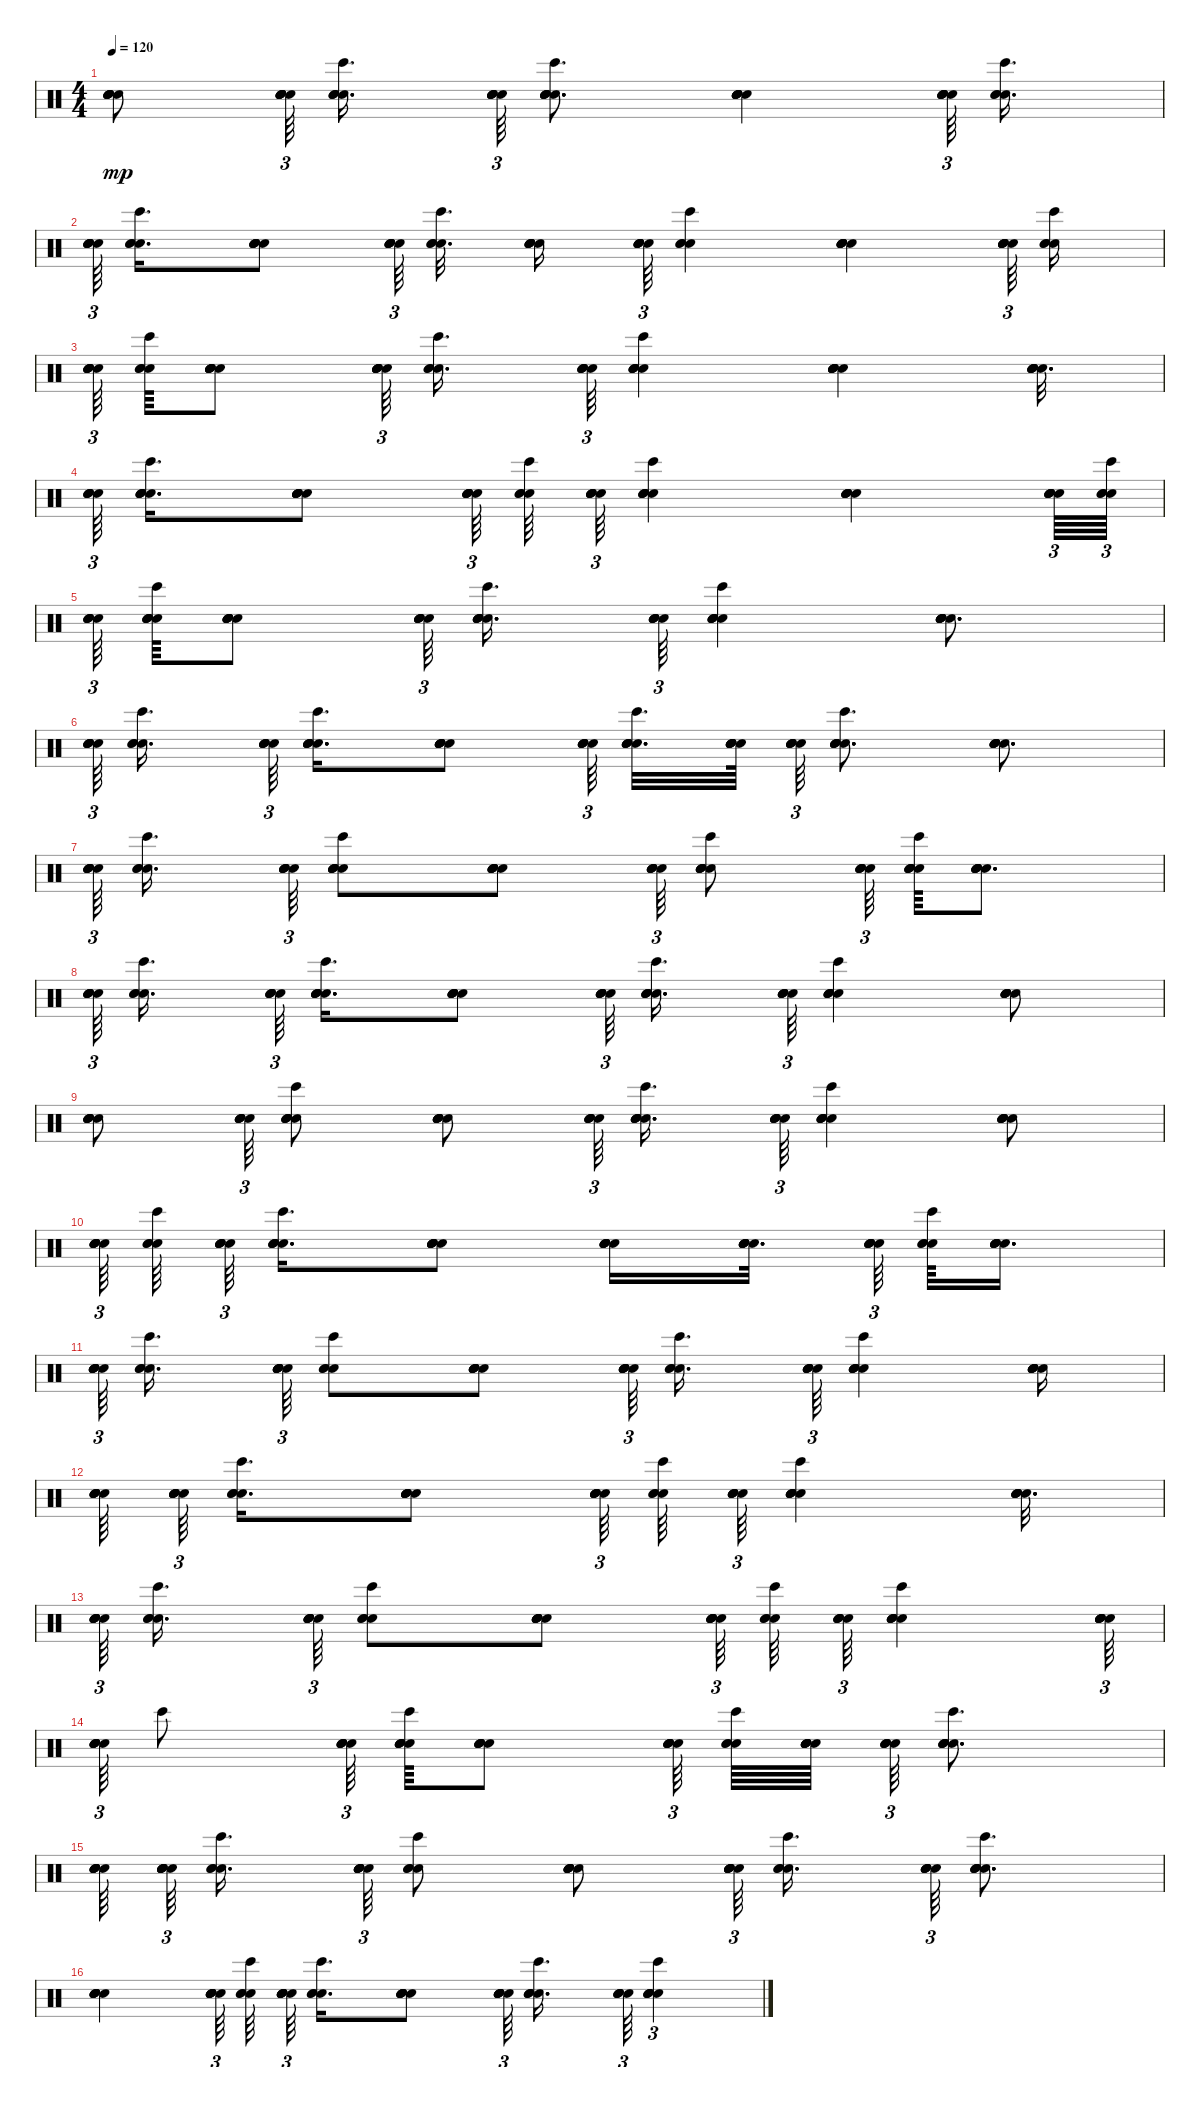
\track "" {instrument percussion}
\staff {score}
\articulation defaults
\ts (4 4)
\tempo 120
\clef neutral
\ks c
("Snare (hit)" "Snare (hit)" "Snare (hit)" "Snare (hit)" "Snare (hit)" "Snare (hit)").8{dy mp} ("Snare (hit)" "Snare (hit)" "Snare (hit)" "Snare (hit)" "Snare (hit)" "Snare (hit)").64{tu (3 2)} ("Snare (hit)" "Snare (hit)" "Snare (hit)" "Snare (hit)" "Bongo High (hit)").16{d} ("Snare (hit)" "Snare (hit)" "Snare (hit)" "Snare (hit)" "Snare (hit)").64{tu (3 2)} ("Snare (hit)" "Snare (hit)" "Snare (hit)" "Bongo High (hit)" "Snare (hit)" "Snare (hit)").8{d} ("Snare (hit)" "Snare (hit)" "Snare (hit)" "Snare (hit)" "Snare (hit)" "Snare (hit)").4 ("Snare (hit)" "Snare (hit)" "Snare (hit)" "Snare (hit)" "Snare (hit)" "Snare (hit)").64{tu (3 2)} ("Snare (hit)" "Snare (hit)" "Snare (hit)" "Bongo High (hit)").16{d} |
("Snare (hit)" "Snare (hit)" "Snare (hit)" "Snare (hit)" "Snare (hit)" "Snare (hit)").64{tu (3 2)} ("Snare (hit)" "Bongo High (hit)" "Snare (hit)" "Snare (hit)").16{d} ("Snare (hit)" "Snare (hit)" "Snare (hit)" "Snare (hit)" "Snare (hit)" "Snare (hit)").8 ("Snare (hit)" "Snare (hit)" "Snare (hit)" "Snare (hit)" "Snare (hit)" "Snare (hit)").64{tu (3 2)} ("Snare (hit)" "Snare (hit)" "Snare (hit)" "Bongo High (hit)").32{d} ("Snare (hit)" "Snare (hit)" "Snare (hit)" "Snare (hit)" "Snare (hit)" "Snare (hit)").16 ("Snare (hit)" "Snare (hit)" "Snare (hit)" "Snare (hit)" "Snare (hit)" "Snare (hit)").64{tu (3 2)} ("Snare (hit)" "Snare (hit)" "Snare (hit)" "Bongo High (hit)").4 ("Snare (hit)" "Snare (hit)" "Snare (hit)" "Snare (hit)" "Snare (hit)" "Snare (hit)").4 ("Snare (hit)" "Snare (hit)" "Snare (hit)" "Snare (hit)" "Snare (hit)" "Snare (hit)").64{tu (3 2)} ("Snare (hit)" "Bongo High (hit)" "Snare (hit)" "Snare (hit)").16 |
("Snare (hit)" "Snare (hit)" "Snare (hit)" "Snare (hit)" "Snare (hit)" "Snare (hit)").64{tu (3 2)} ("Snare (hit)" "Snare (hit)" "Bongo High (hit)" "Snare (hit)").64 ("Snare (hit)" "Snare (hit)" "Snare (hit)" "Snare (hit)" "Snare (hit)" "Snare (hit)").8 ("Snare (hit)" "Snare (hit)" "Snare (hit)" "Snare (hit)" "Snare (hit)" "Snare (hit)").64{tu (3 2)} ("Snare (hit)" "Snare (hit)" "Snare (hit)" "Bongo High (hit)").16{d} ("Snare (hit)" "Snare (hit)" "Snare (hit)" "Snare (hit)" "Snare (hit)").64{tu (3 2)} ("Snare (hit)" "Snare (hit)" "Snare (hit)" "Snare (hit)" "Snare (hit)" "Bongo High (hit)").4 ("Snare (hit)" "Snare (hit)" "Snare (hit)" "Snare (hit)" "Snare (hit)" "Snare (hit)").4 ("Snare (hit)" "Snare (hit)" "Snare (hit)" "Snare (hit)" "Snare (hit)" "Snare (hit)").32{d} |
("Snare (hit)" "Snare (hit)" "Snare (hit)" "Snare (hit)" "Snare (hit)").64{tu (3 2)} ("Snare (hit)" "Snare (hit)" "Snare (hit)" "Snare (hit)" "Bongo High (hit)" "Snare (hit)").16{d} ("Snare (hit)" "Snare (hit)" "Snare (hit)" "Snare (hit)" "Snare (hit)" "Snare (hit)").8 ("Snare (hit)" "Snare (hit)" "Snare (hit)" "Snare (hit)" "Snare (hit)" "Snare (hit)").64{tu (3 2)} ("Snare (hit)" "Snare (hit)" "Bongo High (hit)" "Snare (hit)").64 ("Snare (hit)" "Snare (hit)" "Snare (hit)" "Snare (hit)" "Snare (hit)").64{tu (3 2)} ("Snare (hit)" "Snare (hit)" "Snare (hit)" "Snare (hit)" "Bongo High (hit)" "Snare (hit)").4 ("Snare (hit)" "Snare (hit)" "Snare (hit)" "Snare (hit)" "Snare (hit)" "Snare (hit)").4 ("Snare (hit)" "Snare (hit)" "Snare (hit)" "Snare (hit)" "Snare (hit)" "Snare (hit)").64{tu (3 2)} ("Snare (hit)" "Snare (hit)" "Bongo High (hit)" "Snare (hit)").64{tu (3 2)} |
("Snare (hit)" "Snare (hit)" "Snare (hit)" "Snare (hit)" "Snare (hit)").64{tu (3 2)} ("Snare (hit)" "Snare (hit)" "Snare (hit)" "Snare (hit)" "Bongo High (hit)" "Snare (hit)").64 ("Snare (hit)" "Snare (hit)" "Snare (hit)" "Snare (hit)" "Snare (hit)" "Snare (hit)").8 ("Snare (hit)" "Snare (hit)" "Snare (hit)" "Snare (hit)" "Snare (hit)").64{tu (3 2)} ("Snare (hit)" "Snare (hit)" "Snare (hit)" "Snare (hit)" "Snare (hit)" "Bongo High (hit)").16{d} ("Snare (hit)" "Snare (hit)" "Snare (hit)" "Snare (hit)" "Snare (hit)").64{tu (3 2)} ("Snare (hit)" "Snare (hit)" "Snare (hit)" "Snare (hit)" "Snare (hit)" "Bongo High (hit)").4 ("Snare (hit)" "Snare (hit)" "Snare (hit)" "Snare (hit)" "Snare (hit)" "Snare (hit)").8{d} |
("Snare (hit)" "Snare (hit)" "Snare (hit)" "Snare (hit)" "Snare (hit)" "Snare (hit)").64{tu (3 2)} ("Snare (hit)" "Bongo High (hit)" "Snare (hit)" "Snare (hit)").16{d} ("Snare (hit)" "Snare (hit)" "Snare (hit)" "Snare (hit)" "Snare (hit)").64{tu (3 2)} ("Snare (hit)" "Snare (hit)" "Snare (hit)" "Snare (hit)" "Snare (hit)" "Bongo High (hit)").16{d} ("Snare (hit)" "Snare (hit)" "Snare (hit)" "Snare (hit)" "Snare (hit)" "Snare (hit)").8 ("Snare (hit)" "Snare (hit)" "Snare (hit)" "Snare (hit)" "Snare (hit)").64{tu (3 2)} ("Snare (hit)" "Snare (hit)" "Snare (hit)" "Snare (hit)" "Snare (hit)" "Bongo High (hit)").32{d} ("Snare (hit)" "Snare (hit)" "Snare (hit)" "Snare (hit)" "Snare (hit)" "Snare (hit)").64 ("Snare (hit)" "Snare (hit)" "Snare (hit)" "Snare (hit)" "Snare (hit)").64{tu (3 2)} ("Snare (hit)" "Snare (hit)" "Snare (hit)" "Snare (hit)" "Snare (hit)" "Bongo High (hit)").8{d} ("Snare (hit)" "Snare (hit)" "Snare (hit)" "Snare (hit)" "Snare (hit)" "Snare (hit)").8{d} |
("Snare (hit)" "Snare (hit)" "Snare (hit)" "Snare (hit)" "Snare (hit)" "Snare (hit)").64{tu (3 2)} ("Snare (hit)" "Snare (hit)" "Snare (hit)" "Bongo High (hit)").16{d} ("Snare (hit)" "Snare (hit)" "Snare (hit)" "Snare (hit)" "Snare (hit)").64{tu (3 2)} ("Snare (hit)" "Snare (hit)" "Snare (hit)" "Snare (hit)" "Snare (hit)" "Bongo High (hit)").8 ("Snare (hit)" "Snare (hit)" "Snare (hit)" "Snare (hit)" "Snare (hit)" "Snare (hit)").8 ("Snare (hit)" "Snare (hit)" "Snare (hit)" "Snare (hit)" "Snare (hit)").64{tu (3 2)} ("Snare (hit)" "Snare (hit)" "Snare (hit)" "Snare (hit)" "Bongo High (hit)" "Snare (hit)").8 ("Snare (hit)" "Snare (hit)" "Snare (hit)" "Snare (hit)" "Snare (hit)").64{tu (3 2)} ("Snare (hit)" "Snare (hit)" "Snare (hit)" "Snare (hit)" "Bongo High (hit)" "Snare (hit)").64 ("Snare (hit)" "Snare (hit)" "Snare (hit)" "Snare (hit)" "Snare (hit)" "Snare (hit)").8{d} |
("Snare (hit)" "Snare (hit)" "Snare (hit)" "Snare (hit)" "Snare (hit)" "Snare (hit)").64{tu (3 2)} ("Snare (hit)" "Snare (hit)" "Snare (hit)" "Bongo High (hit)").16{d} ("Snare (hit)" "Snare (hit)" "Snare (hit)" "Snare (hit)" "Snare (hit)").64{tu (3 2)} ("Snare (hit)" "Snare (hit)" "Snare (hit)" "Bongo High (hit)" "Snare (hit)" "Snare (hit)").16{d} ("Snare (hit)" "Snare (hit)" "Snare (hit)" "Snare (hit)" "Snare (hit)" "Snare (hit)").8 ("Snare (hit)" "Snare (hit)" "Snare (hit)" "Snare (hit)" "Snare (hit)").64{tu (3 2)} ("Snare (hit)" "Snare (hit)" "Snare (hit)" "Snare (hit)" "Snare (hit)" "Bongo High (hit)").16{d} ("Snare (hit)" "Snare (hit)" "Snare (hit)" "Snare (hit)" "Snare (hit)").64{tu (3 2)} ("Snare (hit)" "Snare (hit)" "Snare (hit)" "Snare (hit)" "Snare (hit)" "Bongo High (hit)").4 ("Snare (hit)" "Snare (hit)" "Snare (hit)" "Snare (hit)" "Snare (hit)" "Snare (hit)").8 |
("Snare (hit)" "Snare (hit)" "Snare (hit)" "Snare (hit)" "Snare (hit)" "Snare (hit)").8 ("Snare (hit)" "Snare (hit)" "Snare (hit)" "Snare (hit)" "Snare (hit)").64{tu (3 2)} ("Snare (hit)" "Snare (hit)" "Snare (hit)" "Snare (hit)" "Snare (hit)" "Bongo High (hit)").8 ("Snare (hit)" "Snare (hit)" "Snare (hit)" "Snare (hit)" "Snare (hit)" "Snare (hit)").8 ("Snare (hit)" "Snare (hit)" "Snare (hit)" "Snare (hit)" "Snare (hit)").64{tu (3 2)} ("Snare (hit)" "Snare (hit)" "Snare (hit)" "Bongo High (hit)" "Snare (hit)" "Snare (hit)").16{d} ("Snare (hit)" "Snare (hit)" "Snare (hit)" "Snare (hit)" "Snare (hit)").64{tu (3 2)} ("Snare (hit)" "Snare (hit)" "Snare (hit)" "Bongo High (hit)" "Snare (hit)" "Snare (hit)").4 ("Snare (hit)" "Snare (hit)" "Snare (hit)" "Snare (hit)" "Snare (hit)" "Snare (hit)").8 |
("Snare (hit)" "Snare (hit)" "Snare (hit)" "Snare (hit)" "Snare (hit)" "Snare (hit)").64{tu (3 2)} ("Snare (hit)" "Snare (hit)" "Bongo High (hit)" "Snare (hit)").64 ("Snare (hit)" "Snare (hit)" "Snare (hit)" "Snare (hit)" "Snare (hit)").64{tu (3 2)} ("Snare (hit)" "Snare (hit)" "Snare (hit)" "Bongo High (hit)" "Snare (hit)" "Snare (hit)").16{d} ("Snare (hit)" "Snare (hit)" "Snare (hit)" "Snare (hit)" "Snare (hit)" "Snare (hit)").8 ("Snare (hit)" "Snare (hit)" "Snare (hit)" "Snare (hit)" "Snare (hit)" "Snare (hit)").16 ("Snare (hit)" "Snare (hit)" "Snare (hit)" "Snare (hit)" "Snare (hit)" "Snare (hit)").32{d} ("Snare (hit)" "Snare (hit)" "Snare (hit)" "Snare (hit)" "Snare (hit)" "Snare (hit)").64{tu (3 2)} ("Snare (hit)" "Bongo High (hit)" "Snare (hit)" "Snare (hit)").64 ("Snare (hit)" "Snare (hit)" "Snare (hit)" "Snare (hit)" "Snare (hit)" "Snare (hit)").16{d} |
("Snare (hit)" "Snare (hit)" "Snare (hit)" "Snare (hit)" "Snare (hit)" "Snare (hit)").64{tu (3 2)} ("Snare (hit)" "Snare (hit)" "Snare (hit)" "Bongo High (hit)").16{d} ("Snare (hit)" "Snare (hit)" "Snare (hit)" "Snare (hit)" "Snare (hit)" "Snare (hit)").64{tu (3 2)} ("Snare (hit)" "Bongo High (hit)" "Snare (hit)" "Snare (hit)").8 ("Snare (hit)" "Snare (hit)" "Snare (hit)" "Snare (hit)" "Snare (hit)" "Snare (hit)").8 ("Snare (hit)" "Snare (hit)" "Snare (hit)" "Snare (hit)" "Snare (hit)" "Snare (hit)").64{tu (3 2)} ("Snare (hit)" "Snare (hit)" "Snare (hit)" "Bongo High (hit)").16{d} ("Snare (hit)" "Snare (hit)" "Snare (hit)" "Snare (hit)" "Snare (hit)").64{tu (3 2)} ("Snare (hit)" "Snare (hit)" "Snare (hit)" "Snare (hit)" "Bongo High (hit)" "Snare (hit)").4 ("Snare (hit)" "Snare (hit)" "Snare (hit)" "Snare (hit)" "Snare (hit)" "Snare (hit)").16 |
("Snare (hit)" "Snare (hit)" "Snare (hit)" "Snare (hit)" "Snare (hit)" "Snare (hit)").64 ("Snare (hit)" "Snare (hit)" "Snare (hit)" "Snare (hit)" "Snare (hit)" "Snare (hit)").64{tu (3 2)} ("Snare (hit)" "Snare (hit)" "Snare (hit)" "Bongo High (hit)").16{d} ("Snare (hit)" "Snare (hit)" "Snare (hit)" "Snare (hit)" "Snare (hit)" "Snare (hit)").8 ("Snare (hit)" "Snare (hit)" "Snare (hit)" "Snare (hit)" "Snare (hit)" "Snare (hit)").64{tu (3 2)} ("Snare (hit)" "Snare (hit)" "Bongo High (hit)" "Snare (hit)").64 ("Snare (hit)" "Snare (hit)" "Snare (hit)" "Snare (hit)" "Snare (hit)").64{tu (3 2)} ("Snare (hit)" "Snare (hit)" "Snare (hit)" "Snare (hit)" "Bongo High (hit)" "Snare (hit)").4 ("Snare (hit)" "Snare (hit)" "Snare (hit)" "Snare (hit)" "Snare (hit)" "Snare (hit)").32{d} |
("Snare (hit)" "Snare (hit)" "Snare (hit)" "Snare (hit)" "Snare (hit)" "Snare (hit)").64{tu (3 2)} ("Snare (hit)" "Bongo High (hit)" "Snare (hit)" "Snare (hit)").16{d} ("Snare (hit)" "Snare (hit)" "Snare (hit)" "Snare (hit)" "Snare (hit)" "Snare (hit)").64{tu (3 2)} ("Snare (hit)" "Snare (hit)" "Bongo High (hit)" "Snare (hit)").8 ("Snare (hit)" "Snare (hit)" "Snare (hit)" "Snare (hit)" "Snare (hit)" "Snare (hit)").8 ("Snare (hit)" "Snare (hit)" "Snare (hit)" "Snare (hit)" "Snare (hit)" "Snare (hit)").64{tu (3 2)} ("Snare (hit)" "Snare (hit)" "Bongo High (hit)" "Snare (hit)").64 ("Snare (hit)" "Snare (hit)" "Snare (hit)" "Snare (hit)" "Snare (hit)").64{tu (3 2)} ("Snare (hit)" "Snare (hit)" "Snare (hit)" "Snare (hit)" "Bongo High (hit)" "Snare (hit)").4 ("Snare (hit)" "Snare (hit)" "Snare (hit)" "Snare (hit)" "Snare (hit)" "Snare (hit)").64{tu (3 2)} |
("Snare (hit)" "Snare (hit)" "Snare (hit)" "Snare (hit)" "Snare (hit)" "Snare (hit)").64{tu (3 2)} "Bongo High (hit)".8 ("Snare (hit)" "Snare (hit)" "Snare (hit)" "Snare (hit)" "Snare (hit)").64{tu (3 2)} ("Snare (hit)" "Snare (hit)" "Snare (hit)" "Snare (hit)" "Bongo High (hit)" "Snare (hit)").64 ("Snare (hit)" "Snare (hit)" "Snare (hit)" "Snare (hit)" "Snare (hit)" "Snare (hit)").8 ("Snare (hit)" "Snare (hit)" "Snare (hit)" "Snare (hit)" "Snare (hit)" "Snare (hit)").64{tu (3 2)} ("Snare (hit)" "Snare (hit)" "Bongo High (hit)" "Snare (hit)").64 ("Snare (hit)" "Snare (hit)" "Snare (hit)" "Snare (hit)" "Snare (hit)" "Snare (hit)").64 ("Snare (hit)" "Snare (hit)" "Snare (hit)" "Snare (hit)" "Snare (hit)").64{tu (3 2)} ("Snare (hit)" "Snare (hit)" "Snare (hit)" "Snare (hit)" "Bongo High (hit)" "Snare (hit)").8{d} |
("Snare (hit)" "Snare (hit)" "Snare (hit)" "Snare (hit)" "Snare (hit)" "Snare (hit)").64 ("Snare (hit)" "Snare (hit)" "Snare (hit)" "Snare (hit)" "Snare (hit)" "Snare (hit)").64{tu (3 2)} ("Snare (hit)" "Snare (hit)" "Snare (hit)" "Bongo High (hit)").16{d} ("Snare (hit)" "Snare (hit)" "Snare (hit)" "Snare (hit)" "Snare (hit)" "Snare (hit)").64{tu (3 2)} ("Snare (hit)" "Bongo High (hit)" "Snare (hit)" "Snare (hit)").8 ("Snare (hit)" "Snare (hit)" "Snare (hit)" "Snare (hit)" "Snare (hit)" "Snare (hit)").8 ("Snare (hit)" "Snare (hit)" "Snare (hit)" "Snare (hit)" "Snare (hit)" "Snare (hit)").64{tu (3 2)} ("Snare (hit)" "Snare (hit)" "Snare (hit)" "Bongo High (hit)").16{d} ("Snare (hit)" "Snare (hit)" "Snare (hit)" "Snare (hit)" "Snare (hit)").64{tu (3 2)} ("Snare (hit)" "Snare (hit)" "Snare (hit)" "Snare (hit)" "Snare (hit)" "Bongo High (hit)").8{d} |
("Snare (hit)" "Snare (hit)" "Snare (hit)" "Snare (hit)" "Snare (hit)" "Snare (hit)").4 ("Snare (hit)" "Snare (hit)" "Snare (hit)" "Snare (hit)" "Snare (hit)" "Snare (hit)").64{tu (3 2)} ("Snare (hit)" "Snare (hit)" "Bongo High (hit)" "Snare (hit)").64 ("Snare (hit)" "Snare (hit)" "Snare (hit)" "Snare (hit)" "Snare (hit)" "Snare (hit)").64{tu (3 2)} ("Snare (hit)" "Bongo High (hit)" "Snare (hit)" "Snare (hit)").16{d} ("Snare (hit)" "Snare (hit)" "Snare (hit)" "Snare (hit)" "Snare (hit)" "Snare (hit)").8 ("Snare (hit)" "Snare (hit)" "Snare (hit)" "Snare (hit)" "Snare (hit)" "Snare (hit)").64{tu (3 2)} ("Snare (hit)" "Snare (hit)" "Snare (hit)" "Snare (hit)" "Bongo High (hit)").16{d} ("Snare (hit)" "Snare (hit)" "Snare (hit)" "Snare (hit)" "Snare (hit)").64{tu (3 2)} ("Snare (hit)" "Snare (hit)" "Snare (hit)" "Snare (hit)" "Bongo High (hit)" "Snare (hit)").4{tu (3 2)}
